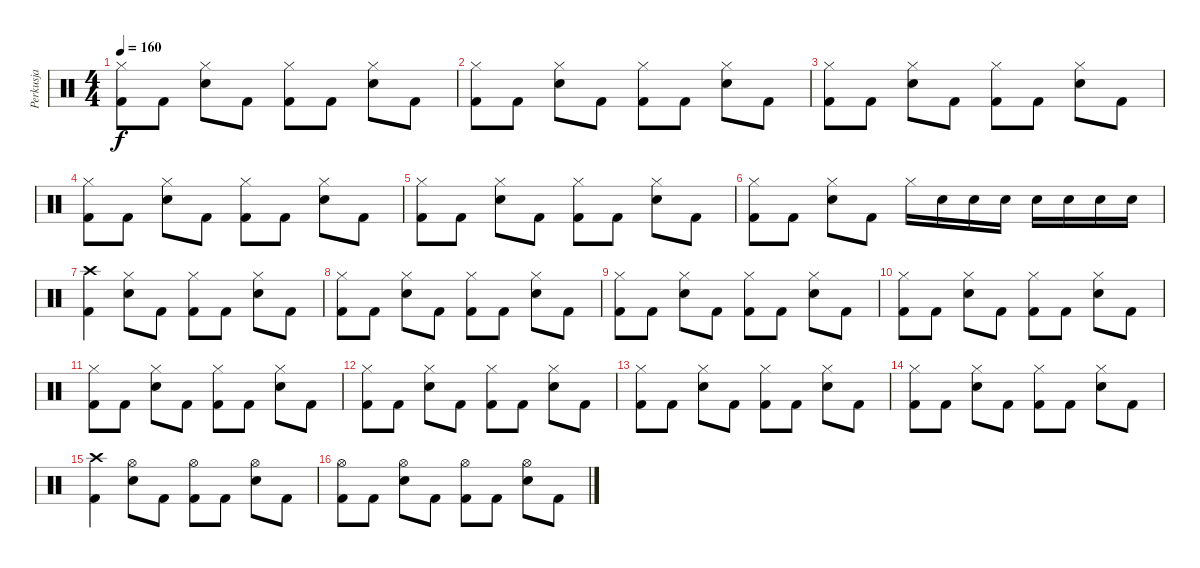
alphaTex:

\track ("Perkusja" "Perkusja") {instrument percussion}
\staff {score}
\articulation defaults
\ts (4 4)
\tempo 160
\clef neutral
\ks c
("Hi-Hat (closed)" "Kick (hit) 2").8{dy f} "Kick (hit) 2".8 ("Hi-Hat (closed)" "Electric Snare (hit)").8 "Kick (hit) 2".8 ("Hi-Hat (closed)" "Kick (hit) 2").8 "Kick (hit) 2".8 ("Hi-Hat (closed)" "Electric Snare (hit)").8 "Kick (hit) 2".8 |
("Hi-Hat (closed)" "Kick (hit) 2").8 "Kick (hit) 2".8 ("Hi-Hat (closed)" "Electric Snare (hit)").8 "Kick (hit) 2".8 ("Hi-Hat (closed)" "Kick (hit) 2").8 "Kick (hit) 2".8 ("Hi-Hat (closed)" "Electric Snare (hit)").8 "Kick (hit) 2".8 |
("Hi-Hat (closed)" "Kick (hit) 2").8 "Kick (hit) 2".8 ("Hi-Hat (closed)" "Electric Snare (hit)").8 "Kick (hit) 2".8 ("Hi-Hat (closed)" "Kick (hit) 2").8 "Kick (hit) 2".8 ("Hi-Hat (closed)" "Electric Snare (hit)").8 "Kick (hit) 2".8 |
("Hi-Hat (closed)" "Kick (hit) 2").8 "Kick (hit) 2".8 ("Hi-Hat (closed)" "Electric Snare (hit)").8 "Kick (hit) 2".8 ("Hi-Hat (closed)" "Kick (hit) 2").8 "Kick (hit) 2".8 ("Hi-Hat (closed)" "Electric Snare (hit)").8 "Kick (hit) 2".8 |
("Hi-Hat (closed)" "Kick (hit) 2").8 "Kick (hit) 2".8 ("Hi-Hat (closed)" "Electric Snare (hit)").8 "Kick (hit) 2".8 ("Hi-Hat (closed)" "Kick (hit) 2").8 "Kick (hit) 2".8 ("Hi-Hat (closed)" "Electric Snare (hit)").8 "Kick (hit) 2".8 |
("Hi-Hat (closed)" "Kick (hit) 2").8 "Kick (hit) 2".8 ("Hi-Hat (closed)" "Electric Snare (hit)").8 "Kick (hit) 2".8 "Hi-Hat (closed)".16 "Electric Snare (hit)".16 "Electric Snare (hit)".16 "Electric Snare (hit)".16 "Electric Snare (hit)".16 "Electric Snare (hit)".16 "Electric Snare (hit)".16 "Electric Snare (hit)".16 |
("Crash high (hit)" "Kick (hit) 2").4 ("Hi-Hat (closed)" "Electric Snare (hit)").8 "Kick (hit) 2".8 ("Hi-Hat (closed)" "Kick (hit) 2").8 "Kick (hit) 2".8 ("Hi-Hat (closed)" "Electric Snare (hit)").8 "Kick (hit) 2".8 |
("Hi-Hat (closed)" "Kick (hit) 2").8 "Kick (hit) 2".8 ("Hi-Hat (closed)" "Electric Snare (hit)").8 "Kick (hit) 2".8 ("Hi-Hat (closed)" "Kick (hit) 2").8 "Kick (hit) 2".8 ("Hi-Hat (closed)" "Electric Snare (hit)").8 "Kick (hit) 2".8 |
("Hi-Hat (closed)" "Kick (hit) 2").8 "Kick (hit) 2".8 ("Hi-Hat (closed)" "Electric Snare (hit)").8 "Kick (hit) 2".8 ("Hi-Hat (closed)" "Kick (hit) 2").8 "Kick (hit) 2".8 ("Hi-Hat (closed)" "Electric Snare (hit)").8 "Kick (hit) 2".8 |
("Hi-Hat (closed)" "Kick (hit) 2").8 "Kick (hit) 2".8 ("Hi-Hat (closed)" "Electric Snare (hit)").8 "Kick (hit) 2".8 ("Hi-Hat (closed)" "Kick (hit) 2").8 "Kick (hit) 2".8 ("Hi-Hat (closed)" "Electric Snare (hit)").8 "Kick (hit) 2".8 |
("Hi-Hat (closed)" "Kick (hit) 2").8 "Kick (hit) 2".8 ("Hi-Hat (closed)" "Electric Snare (hit)").8 "Kick (hit) 2".8 ("Hi-Hat (closed)" "Kick (hit) 2").8 "Kick (hit) 2".8 ("Hi-Hat (closed)" "Electric Snare (hit)").8 "Kick (hit) 2".8 |
("Hi-Hat (closed)" "Kick (hit) 2").8 "Kick (hit) 2".8 ("Hi-Hat (closed)" "Electric Snare (hit)").8 "Kick (hit) 2".8 ("Hi-Hat (closed)" "Kick (hit) 2").8 "Kick (hit) 2".8 ("Hi-Hat (closed)" "Electric Snare (hit)").8 "Kick (hit) 2".8 |
("Hi-Hat (closed)" "Kick (hit) 2").8 "Kick (hit) 2".8 ("Hi-Hat (closed)" "Electric Snare (hit)").8 "Kick (hit) 2".8 ("Hi-Hat (closed)" "Kick (hit) 2").8 "Kick (hit) 2".8 ("Hi-Hat (closed)" "Electric Snare (hit)").8 "Kick (hit) 2".8 |
("Hi-Hat (closed)" "Kick (hit) 2").8 "Kick (hit) 2".8 ("Hi-Hat (closed)" "Electric Snare (hit)").8 "Kick (hit) 2".8 ("Hi-Hat (closed)" "Kick (hit) 2").8 "Kick (hit) 2".8 ("Hi-Hat (closed)" "Electric Snare (hit)").8 "Kick (hit) 2".8 |
("Crash high (hit)" "Kick (hit) 2").4 ("Hi-Hat (open)" "Electric Snare (hit)").8 "Kick (hit) 2".8 ("Hi-Hat (open)" "Kick (hit) 2").8 "Kick (hit) 2".8 ("Hi-Hat (open)" "Electric Snare (hit)").8 "Kick (hit) 2".8 |
("Hi-Hat (open)" "Kick (hit) 2").8 "Kick (hit) 2".8 ("Hi-Hat (open)" "Electric Snare (hit)").8 "Kick (hit) 2".8 ("Hi-Hat (open)" "Kick (hit) 2").8 "Kick (hit) 2".8 ("Hi-Hat (open)" "Electric Snare (hit)").8 "Kick (hit) 2".8
